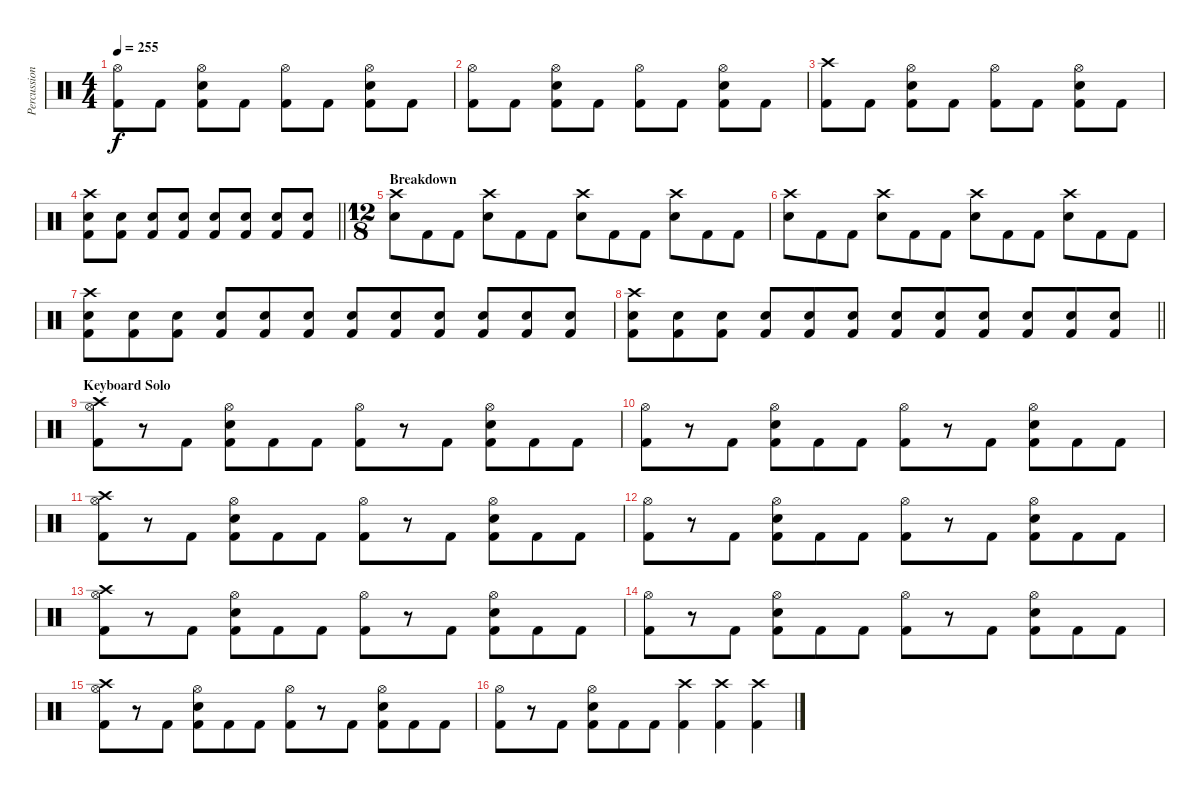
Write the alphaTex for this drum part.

\track ("Percussion" "Percussion") {instrument percussion}
\staff {score}
\articulation defaults
\ts (4 4)
\tempo 255
\clef neutral
\ks c
("Hi-Hat (open)" "Kick (hit) 2").8{dy f} "Kick (hit) 2".8 ("Hi-Hat (open)" "Snare (hit) 2" "Kick (hit) 2").8 "Kick (hit) 2".8 ("Hi-Hat (open)" "Kick (hit) 2").8 "Kick (hit) 2".8 ("Hi-Hat (open)" "Snare (hit) 2" "Kick (hit) 2").8 "Kick (hit) 2".8 |
("Hi-Hat (open)" "Kick (hit) 2").8 "Kick (hit) 2".8 ("Hi-Hat (open)" "Snare (hit) 2" "Kick (hit) 2").8 "Kick (hit) 2".8 ("Hi-Hat (open)" "Kick (hit) 2").8 "Kick (hit) 2".8 ("Hi-Hat (open)" "Snare (hit) 2" "Kick (hit) 2").8 "Kick (hit) 2".8 |
("Crash high (hit)" "Kick (hit) 2").8 "Kick (hit) 2".8 ("Hi-Hat (open)" "Snare (hit) 2" "Kick (hit) 2").8 "Kick (hit) 2".8 ("Hi-Hat (open)" "Kick (hit) 2").8 "Kick (hit) 2".8 ("Hi-Hat (open)" "Snare (hit) 2" "Kick (hit) 2").8 "Kick (hit) 2".8 |
\barLineRight lightlight
("Crash high (hit)" "Snare (hit) 2" "Kick (hit) 2").8 ("Snare (hit) 2" "Kick (hit) 2").8 ("Snare (hit) 2" "Kick (hit) 2").8 ("Snare (hit) 2" "Kick (hit) 2").8 ("Snare (hit) 2" "Kick (hit) 2").8 ("Snare (hit) 2" "Kick (hit) 2").8 ("Snare (hit) 2" "Kick (hit) 2").8 ("Snare (hit) 2" "Kick (hit) 2").8 |
\ts (12 8)
\section ("" "Breakdown")
("Crash high (hit)" "Snare (hit) 2").8 "Kick (hit) 2".8 "Kick (hit) 2".8 ("Crash high (hit)" "Snare (hit) 2").8 "Kick (hit) 2".8 "Kick (hit) 2".8 ("Crash high (hit)" "Snare (hit) 2").8 "Kick (hit) 2".8 "Kick (hit) 2".8 ("Crash high (hit)" "Snare (hit) 2").8 "Kick (hit) 2".8 "Kick (hit) 2".8 |
("Crash high (hit)" "Snare (hit) 2").8 "Kick (hit) 2".8 "Kick (hit) 2".8 ("Crash high (hit)" "Snare (hit) 2").8 "Kick (hit) 2".8 "Kick (hit) 2".8 ("Crash high (hit)" "Snare (hit) 2").8 "Kick (hit) 2".8 "Kick (hit) 2".8 ("Crash high (hit)" "Snare (hit) 2").8 "Kick (hit) 2".8 "Kick (hit) 2".8 |
("Crash high (hit)" "Snare (hit) 2" "Kick (hit) 2").8 ("Snare (hit) 2" "Kick (hit) 2").8 ("Snare (hit) 2" "Kick (hit) 2").8 ("Snare (hit) 2" "Kick (hit) 2").8 ("Snare (hit) 2" "Kick (hit) 2").8 ("Snare (hit) 2" "Kick (hit) 2").8 ("Snare (hit) 2" "Kick (hit) 2").8 ("Snare (hit) 2" "Kick (hit) 2").8 ("Snare (hit) 2" "Kick (hit) 2").8 ("Snare (hit) 2" "Kick (hit) 2").8 ("Snare (hit) 2" "Kick (hit) 2").8 ("Snare (hit) 2" "Kick (hit) 2").8 |
\barLineRight lightlight
("Crash high (hit)" "Snare (hit) 2" "Kick (hit) 2").8 ("Snare (hit) 2" "Kick (hit) 2").8 ("Snare (hit) 2" "Kick (hit) 2").8 ("Snare (hit) 2" "Kick (hit) 2").8 ("Snare (hit) 2" "Kick (hit) 2").8 ("Snare (hit) 2" "Kick (hit) 2").8 ("Snare (hit) 2" "Kick (hit) 2").8 ("Snare (hit) 2" "Kick (hit) 2").8 ("Snare (hit) 2" "Kick (hit) 2").8 ("Snare (hit) 2" "Kick (hit) 2").8 ("Snare (hit) 2" "Kick (hit) 2").8 ("Snare (hit) 2" "Kick (hit) 2").8 |
\section ("" "Keyboard Solo")
("Crash high (hit)" "Hi-Hat (open)" "Kick (hit) 2").8 r.8 "Kick (hit) 2".8 ("Hi-Hat (open)" "Snare (hit) 2" "Kick (hit) 2").8 "Kick (hit) 2".8 "Kick (hit) 2".8 ("Hi-Hat (open)" "Kick (hit) 2").8 r.8 "Kick (hit) 2".8 ("Hi-Hat (open)" "Snare (hit) 2" "Kick (hit) 2").8 "Kick (hit) 2".8 "Kick (hit) 2".8 |
("Hi-Hat (open)" "Kick (hit) 2").8 r.8 "Kick (hit) 2".8 ("Hi-Hat (open)" "Snare (hit) 2" "Kick (hit) 2").8 "Kick (hit) 2".8 "Kick (hit) 2".8 ("Hi-Hat (open)" "Kick (hit) 2").8 r.8 "Kick (hit) 2".8 ("Hi-Hat (open)" "Snare (hit) 2" "Kick (hit) 2").8 "Kick (hit) 2".8 "Kick (hit) 2".8 |
("Crash high (hit)" "Hi-Hat (open)" "Kick (hit) 2").8 r.8 "Kick (hit) 2".8 ("Hi-Hat (open)" "Snare (hit) 2" "Kick (hit) 2").8 "Kick (hit) 2".8 "Kick (hit) 2".8 ("Hi-Hat (open)" "Kick (hit) 2").8 r.8 "Kick (hit) 2".8 ("Hi-Hat (open)" "Snare (hit) 2" "Kick (hit) 2").8 "Kick (hit) 2".8 "Kick (hit) 2".8 |
("Hi-Hat (open)" "Kick (hit) 2").8 r.8 "Kick (hit) 2".8 ("Hi-Hat (open)" "Snare (hit) 2" "Kick (hit) 2").8 "Kick (hit) 2".8 "Kick (hit) 2".8 ("Hi-Hat (open)" "Kick (hit) 2").8 r.8 "Kick (hit) 2".8 ("Hi-Hat (open)" "Snare (hit) 2" "Kick (hit) 2").8 "Kick (hit) 2".8 "Kick (hit) 2".8 |
("Crash high (hit)" "Hi-Hat (open)" "Kick (hit) 2").8 r.8 "Kick (hit) 2".8 ("Hi-Hat (open)" "Snare (hit) 2" "Kick (hit) 2").8 "Kick (hit) 2".8 "Kick (hit) 2".8 ("Hi-Hat (open)" "Kick (hit) 2").8 r.8 "Kick (hit) 2".8 ("Hi-Hat (open)" "Snare (hit) 2" "Kick (hit) 2").8 "Kick (hit) 2".8 "Kick (hit) 2".8 |
("Hi-Hat (open)" "Kick (hit) 2").8 r.8 "Kick (hit) 2".8 ("Hi-Hat (open)" "Snare (hit) 2" "Kick (hit) 2").8 "Kick (hit) 2".8 "Kick (hit) 2".8 ("Hi-Hat (open)" "Kick (hit) 2").8 r.8 "Kick (hit) 2".8 ("Hi-Hat (open)" "Snare (hit) 2" "Kick (hit) 2").8 "Kick (hit) 2".8 "Kick (hit) 2".8 |
("Crash high (hit)" "Hi-Hat (open)" "Kick (hit) 2").8 r.8 "Kick (hit) 2".8 ("Hi-Hat (open)" "Snare (hit) 2" "Kick (hit) 2").8 "Kick (hit) 2".8 "Kick (hit) 2".8 ("Hi-Hat (open)" "Kick (hit) 2").8 r.8 "Kick (hit) 2".8 ("Hi-Hat (open)" "Snare (hit) 2" "Kick (hit) 2").8 "Kick (hit) 2".8 "Kick (hit) 2".8 |
("Hi-Hat (open)" "Kick (hit) 2").8 r.8 "Kick (hit) 2".8 ("Hi-Hat (open)" "Snare (hit) 2" "Kick (hit) 2").8 "Kick (hit) 2".8 "Kick (hit) 2".8 ("Crash high (hit)" "Kick (hit) 2").4 ("Crash high (hit)" "Kick (hit) 2").4 ("Crash high (hit)" "Kick (hit) 2").4
